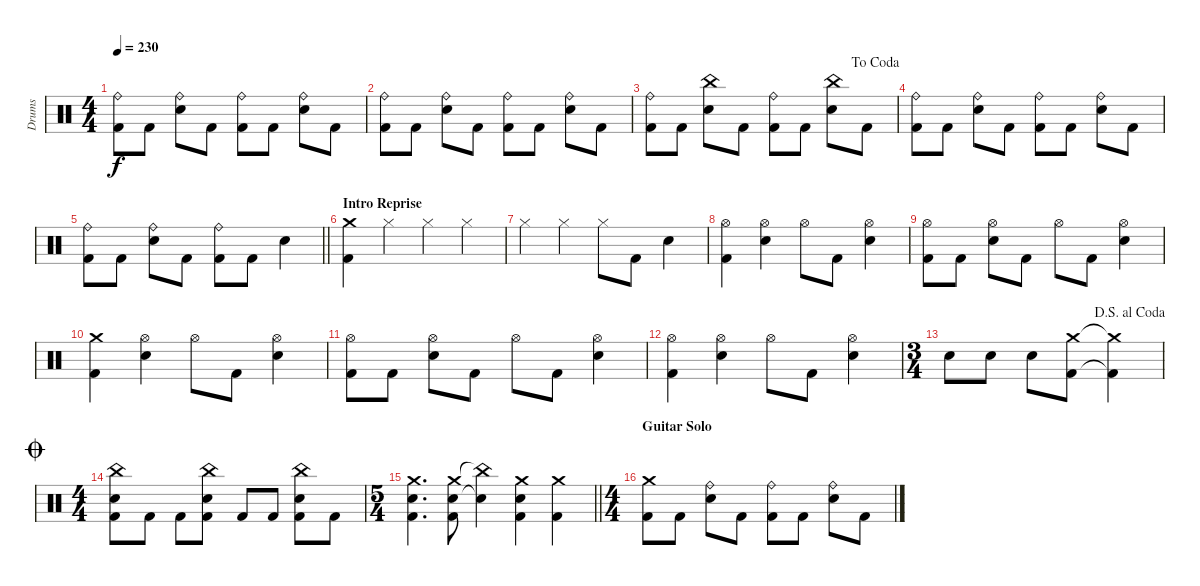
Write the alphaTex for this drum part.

\track ("Drums" "Drums") {instrument percussion}
\staff {score}
\articulation defaults
\ts (4 4)
\tempo 230
\clef neutral
\ks c
("Ride (bell)" "Kick (hit) 2").8{dy f} "Kick (hit) 2".8 ("Ride (bell)" "Snare (hit) 2").8 "Kick (hit) 2".8 ("Ride (bell)" "Kick (hit) 2").8 "Kick (hit) 2".8 ("Ride (bell)" "Snare (hit) 2").8 "Kick (hit) 2".8 |
("Ride (bell)" "Kick (hit) 2").8 "Kick (hit) 2".8 ("Ride (bell)" "Snare (hit) 2").8 "Kick (hit) 2".8 ("Ride (bell)" "Kick (hit) 2").8 "Kick (hit) 2".8 ("Ride (bell)" "Snare (hit) 2").8 "Kick (hit) 2".8 |
\jump dacoda
("Ride (bell)" "Kick (hit) 2").8 "Kick (hit) 2".8 ("China (hit)" "Snare (hit) 2").8 "Kick (hit) 2".8 ("Ride (bell)" "Kick (hit) 2").8 "Kick (hit) 2".8 ("China (hit)" "Snare (hit) 2").8 "Kick (hit) 2".8 |
("Ride (bell)" "Kick (hit) 2").8 "Kick (hit) 2".8 ("Ride (bell)" "Snare (hit) 2").8 "Kick (hit) 2".8 ("Ride (bell)" "Kick (hit) 2").8 "Kick (hit) 2".8 ("Ride (bell)" "Snare (hit) 2").8 "Kick (hit) 2".8 |
\barLineRight lightlight
("Ride (bell)" "Kick (hit) 2").8 "Kick (hit) 2".8 ("Ride (bell)" "Snare (hit) 2").8 "Kick (hit) 2".8 ("Ride (bell)" "Kick (hit) 2").8 "Kick (hit) 2".8 "Snare (hit) 2".4 |
\section ("" "Intro Reprise")
("Crash medium (hit)" "Kick (hit) 2").4 "Hi-Hat (closed)".4 "Hi-Hat (closed)".4 "Hi-Hat (closed)".4 |
"Hi-Hat (closed)".4 "Hi-Hat (closed)".4 "Hi-Hat (closed)".8 "Kick (hit) 2".8 "Snare (hit) 2".4 |
("Hi-Hat (open)" "Kick (hit) 2").4 ("Hi-Hat (open)" "Snare (hit) 2").4 "Hi-Hat (open)".8 "Kick (hit) 2".8 ("Hi-Hat (open)" "Snare (hit) 2").4 |
("Hi-Hat (open)" "Kick (hit) 2").8 "Kick (hit) 2".8 ("Hi-Hat (open)" "Snare (hit) 2").8 "Kick (hit) 2".8 "Hi-Hat (open)".8 "Kick (hit) 2".8 ("Hi-Hat (open)" "Snare (hit) 2").4 |
("Crash medium (hit)" "Kick (hit) 2").4 ("Hi-Hat (open)" "Snare (hit) 2").4 "Hi-Hat (open)".8 "Kick (hit) 2".8 ("Hi-Hat (open)" "Snare (hit) 2").4 |
("Hi-Hat (open)" "Kick (hit) 2").8 "Kick (hit) 2".8 ("Hi-Hat (open)" "Snare (hit) 2").8 "Kick (hit) 2".8 "Hi-Hat (open)".8 "Kick (hit) 2".8 ("Hi-Hat (open)" "Snare (hit) 2").4 |
("Hi-Hat (open)" "Kick (hit) 2").4 ("Hi-Hat (open)" "Snare (hit) 2").4 "Hi-Hat (open)".8 "Kick (hit) 2".8 ("Hi-Hat (open)" "Snare (hit) 2").4 |
\ts (3 4)
\jump dalsegnoalcoda "Snare (hit) 2".8 "Snare (hit) 2".8 "Snare (hit) 2".8
("Crash medium (hit)" "Kick (hit) 2").8 ("Crash medium (hit)"{t} "Kick (hit) 2"{t}).4 |
\ts (4 4)
\jump coda
("China (hit)" "Snare (hit) 2" "Kick (hit) 2").8 "Kick (hit) 2".8 "Kick (hit) 2".8 ("China (hit)" "Snare (hit) 2" "Kick (hit) 2").8 "Kick (hit) 2".8 "Kick (hit) 2".8 ("China (hit)" "Snare (hit) 2" "Kick (hit) 2").8 "Kick (hit) 2".8 |
\ts (5 4)
\barLineRight lightlight
("Crash medium (hit)" "Snare (hit) 2" "Kick (hit) 2").4{d} ("Crash medium (hit)" "Snare (hit) 2" "Kick (hit) 2").8 ("China (hit)"{t} "Snare (hit) 2"{t}).4 ("Crash medium (hit)" "Snare (hit) 2" "Kick (hit) 2").4 ("Crash medium (hit)" "Kick (hit) 2").4 |
\ts (4 4)
\section ("" "Guitar Solo")
("Crash medium (hit)" "Kick (hit) 2").8 "Kick (hit) 2".8 ("Ride (bell)" "Snare (hit) 2").8 "Kick (hit) 2".8 ("Ride (bell)" "Kick (hit) 2").8 "Kick (hit) 2".8 ("Ride (bell)" "Snare (hit) 2").8 "Kick (hit) 2".8
